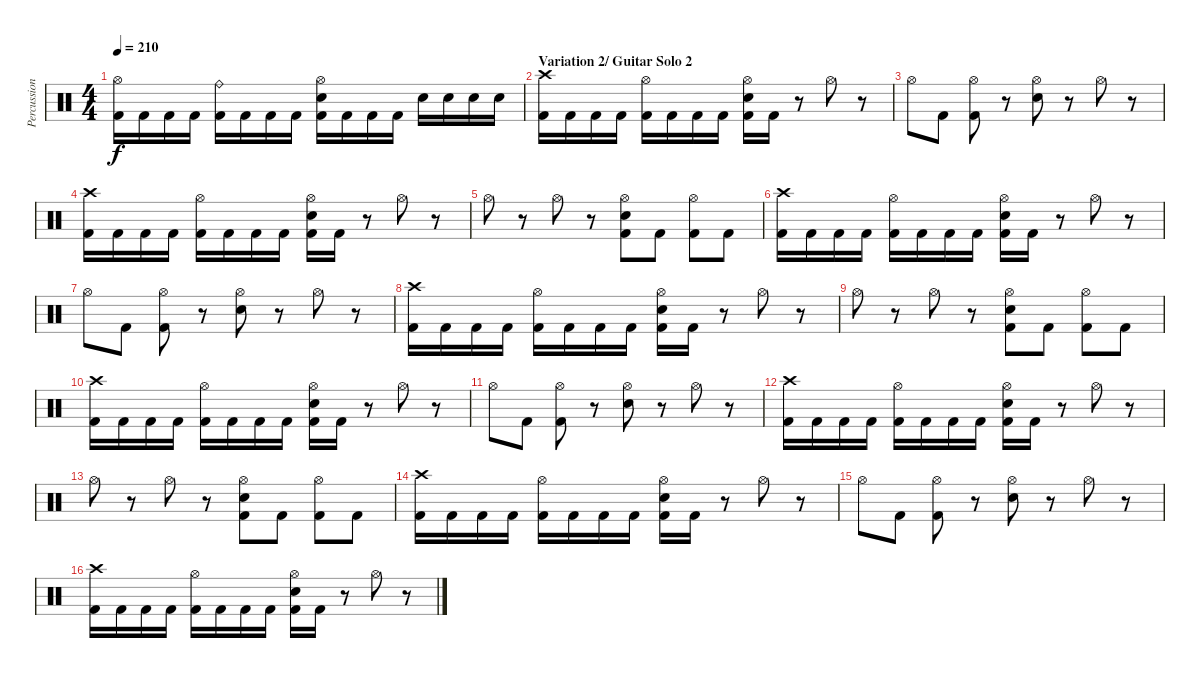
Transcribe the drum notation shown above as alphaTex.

\track ("Percussion" "Percussion") {instrument percussion}
\staff {score}
\articulation defaults
\ts (4 4)
\tempo 210
\clef neutral
\ks c
("Hi-Hat (open)" "Kick (hit) 2").16{dy f} "Kick (hit) 2".16 "Kick (hit) 2".16 "Kick (hit) 2".16 ("Ride (bell)" "Kick (hit) 2").16 "Kick (hit) 2".16 "Kick (hit) 2".16 "Kick (hit) 2".16 ("Hi-Hat (open)" "Electric Snare (hit)" "Kick (hit) 2").16 "Kick (hit) 2".16 "Kick (hit) 2".16 "Kick (hit) 2".16 "Electric Snare (hit)".16 "Electric Snare (hit)".16 "Electric Snare (hit)".16 "Electric Snare (hit)".16 |
\section ("" "Variation 2/ Guitar Solo 2")
("Crash high (hit)" "Kick (hit) 2").16 "Kick (hit) 2".16 "Kick (hit) 2".16 "Kick (hit) 2".16 ("Hi-Hat (open)" "Kick (hit) 2").16 "Kick (hit) 2".16 "Kick (hit) 2".16 "Kick (hit) 2".16 ("Hi-Hat (open)" "Electric Snare (hit)" "Kick (hit) 2").16 "Kick (hit) 2".16 r.8 "Hi-Hat (open)".8 r.8 |
"Hi-Hat (open)".8 "Kick (hit) 2".8 ("Hi-Hat (open)" "Kick (hit) 2").8 r.8 ("Hi-Hat (open)" "Electric Snare (hit)").8 r.8 "Hi-Hat (open)".8 r.8 |
("Crash high (hit)" "Kick (hit) 2").16 "Kick (hit) 2".16 "Kick (hit) 2".16 "Kick (hit) 2".16 ("Hi-Hat (open)" "Kick (hit) 2").16 "Kick (hit) 2".16 "Kick (hit) 2".16 "Kick (hit) 2".16 ("Hi-Hat (open)" "Electric Snare (hit)" "Kick (hit) 2").16 "Kick (hit) 2".16 r.8 "Hi-Hat (open)".8 r.8 |
"Hi-Hat (open)".8 r.8 "Hi-Hat (open)".8 r.8 ("Hi-Hat (open)" "Electric Snare (hit)" "Kick (hit) 2").8 "Kick (hit) 2".8 ("Hi-Hat (open)" "Kick (hit) 2").8 "Kick (hit) 2".8 |
("Crash high (hit)" "Kick (hit) 2").16 "Kick (hit) 2".16 "Kick (hit) 2".16 "Kick (hit) 2".16 ("Hi-Hat (open)" "Kick (hit) 2").16 "Kick (hit) 2".16 "Kick (hit) 2".16 "Kick (hit) 2".16 ("Hi-Hat (open)" "Electric Snare (hit)" "Kick (hit) 2").16 "Kick (hit) 2".16 r.8 "Hi-Hat (open)".8 r.8 |
"Hi-Hat (open)".8 "Kick (hit) 2".8 ("Hi-Hat (open)" "Kick (hit) 2").8 r.8 ("Hi-Hat (open)" "Electric Snare (hit)").8 r.8 "Hi-Hat (open)".8 r.8 |
("Crash high (hit)" "Kick (hit) 2").16 "Kick (hit) 2".16 "Kick (hit) 2".16 "Kick (hit) 2".16 ("Hi-Hat (open)" "Kick (hit) 2").16 "Kick (hit) 2".16 "Kick (hit) 2".16 "Kick (hit) 2".16 ("Hi-Hat (open)" "Electric Snare (hit)" "Kick (hit) 2").16 "Kick (hit) 2".16 r.8 "Hi-Hat (open)".8 r.8 |
"Hi-Hat (open)".8 r.8 "Hi-Hat (open)".8 r.8 ("Hi-Hat (open)" "Electric Snare (hit)" "Kick (hit) 2").8 "Kick (hit) 2".8 ("Hi-Hat (open)" "Kick (hit) 2").8 "Kick (hit) 2".8 |
("Crash high (hit)" "Kick (hit) 2").16 "Kick (hit) 2".16 "Kick (hit) 2".16 "Kick (hit) 2".16 ("Hi-Hat (open)" "Kick (hit) 2").16 "Kick (hit) 2".16 "Kick (hit) 2".16 "Kick (hit) 2".16 ("Hi-Hat (open)" "Electric Snare (hit)" "Kick (hit) 2").16 "Kick (hit) 2".16 r.8 "Hi-Hat (open)".8 r.8 |
"Hi-Hat (open)".8 "Kick (hit) 2".8 ("Hi-Hat (open)" "Kick (hit) 2").8 r.8 ("Hi-Hat (open)" "Electric Snare (hit)").8 r.8 "Hi-Hat (open)".8 r.8 |
("Crash high (hit)" "Kick (hit) 2").16 "Kick (hit) 2".16 "Kick (hit) 2".16 "Kick (hit) 2".16 ("Hi-Hat (open)" "Kick (hit) 2").16 "Kick (hit) 2".16 "Kick (hit) 2".16 "Kick (hit) 2".16 ("Hi-Hat (open)" "Electric Snare (hit)" "Kick (hit) 2").16 "Kick (hit) 2".16 r.8 "Hi-Hat (open)".8 r.8 |
"Hi-Hat (open)".8 r.8 "Hi-Hat (open)".8 r.8 ("Hi-Hat (open)" "Electric Snare (hit)" "Kick (hit) 2").8 "Kick (hit) 2".8 ("Hi-Hat (open)" "Kick (hit) 2").8 "Kick (hit) 2".8 |
("Crash high (hit)" "Kick (hit) 2").16 "Kick (hit) 2".16 "Kick (hit) 2".16 "Kick (hit) 2".16 ("Hi-Hat (open)" "Kick (hit) 2").16 "Kick (hit) 2".16 "Kick (hit) 2".16 "Kick (hit) 2".16 ("Hi-Hat (open)" "Electric Snare (hit)" "Kick (hit) 2").16 "Kick (hit) 2".16 r.8 "Hi-Hat (open)".8 r.8 |
"Hi-Hat (open)".8 "Kick (hit) 2".8 ("Hi-Hat (open)" "Kick (hit) 2").8 r.8 ("Hi-Hat (open)" "Electric Snare (hit)").8 r.8 "Hi-Hat (open)".8 r.8 |
("Crash high (hit)" "Kick (hit) 2").16 "Kick (hit) 2".16 "Kick (hit) 2".16 "Kick (hit) 2".16 ("Hi-Hat (open)" "Kick (hit) 2").16 "Kick (hit) 2".16 "Kick (hit) 2".16 "Kick (hit) 2".16 ("Hi-Hat (open)" "Electric Snare (hit)" "Kick (hit) 2").16 "Kick (hit) 2".16 r.8 "Hi-Hat (open)".8 r.8
